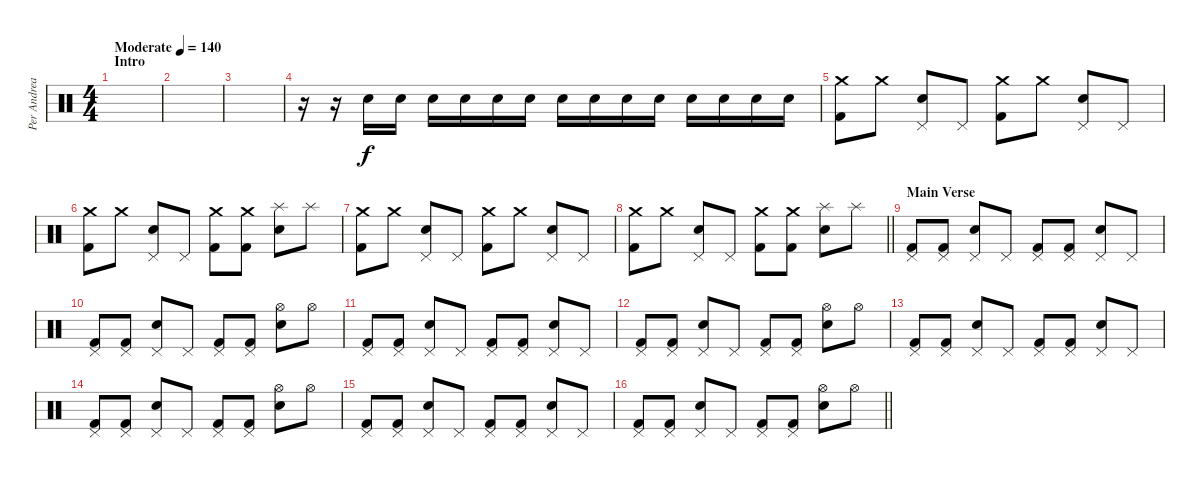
\track ("Per Andreasson" "Per Andrea") {instrument percussion}
\staff {score}
\articulation defaults
\ts (4 4)
\section ("" "Intro")
\tempo (140 "Moderate")
\clef neutral
\ks c
|
|
|
r.16 r.16 "Snare (hit) 2".16 "Snare (hit) 2".16 "Snare (hit) 2".16 "Snare (hit) 2".16 "Snare (hit) 2".16 "Snare (hit) 2".16 "Snare (hit) 2".16 "Snare (hit) 2".16 "Snare (hit) 2".16 "Snare (hit) 2".16 "Snare (hit) 2".16 "Snare (hit) 2".16 "Snare (hit) 2".16 "Snare (hit) 2".16 |
("Crash medium (hit)" "Kick (hit) 2").8 "Crash medium (hit)".8 ("Pedal Hi-Hat (hit)" "Snare (hit) 2").8 "Pedal Hi-Hat (hit)".8 ("Crash medium (hit)" "Kick (hit) 2").8 "Crash medium (hit)".8 ("Pedal Hi-Hat (hit)" "Snare (hit) 2").8 "Pedal Hi-Hat (hit)".8 |
("Crash medium (hit)" "Kick (hit) 2").8 "Crash medium (hit)".8 ("Pedal Hi-Hat (hit)" "Snare (hit) 2").8 "Pedal Hi-Hat (hit)".8 ("Crash medium (hit)" "Kick (hit) 2").8 ("Crash medium (hit)" "Kick (hit) 2").8 ("Splash (hit)" "Snare (hit) 2").8 "Splash (hit)".8 |
("Crash medium (hit)" "Kick (hit) 2").8 "Crash medium (hit)".8 ("Pedal Hi-Hat (hit)" "Snare (hit) 2").8 "Pedal Hi-Hat (hit)".8 ("Crash medium (hit)" "Kick (hit) 2").8 "Crash medium (hit)".8 ("Pedal Hi-Hat (hit)" "Snare (hit) 2").8 "Pedal Hi-Hat (hit)".8 |
\barLineRight lightlight
("Crash medium (hit)" "Kick (hit) 2").8 "Crash medium (hit)".8 ("Pedal Hi-Hat (hit)" "Snare (hit) 2").8 "Pedal Hi-Hat (hit)".8 ("Crash medium (hit)" "Kick (hit) 2").8 ("Crash medium (hit)" "Kick (hit) 2").8 ("Splash (hit)" "Snare (hit) 2").8 "Splash (hit)".8 |
\section ("" "Main Verse")
("Pedal Hi-Hat (hit)" "Kick (hit) 2").8 ("Pedal Hi-Hat (hit)" "Kick (hit) 2").8 ("Pedal Hi-Hat (hit)" "Snare (hit) 2").8 "Pedal Hi-Hat (hit)".8 ("Pedal Hi-Hat (hit)" "Kick (hit) 2").8 ("Pedal Hi-Hat (hit)" "Kick (hit) 2").8 ("Pedal Hi-Hat (hit)" "Snare (hit) 2").8 "Pedal Hi-Hat (hit)".8 |
("Pedal Hi-Hat (hit)" "Kick (hit) 2").8 ("Pedal Hi-Hat (hit)" "Kick (hit) 2").8 ("Pedal Hi-Hat (hit)" "Snare (hit) 2").8 "Pedal Hi-Hat (hit)".8 ("Pedal Hi-Hat (hit)" "Kick (hit) 2").8 ("Pedal Hi-Hat (hit)" "Kick (hit) 2").8 ("Hi-Hat (open)" "Snare (hit) 2").8 "Hi-Hat (open)".8 |
("Pedal Hi-Hat (hit)" "Kick (hit) 2").8 ("Pedal Hi-Hat (hit)" "Kick (hit) 2").8 ("Pedal Hi-Hat (hit)" "Snare (hit) 2").8 "Pedal Hi-Hat (hit)".8 ("Pedal Hi-Hat (hit)" "Kick (hit) 2").8 ("Pedal Hi-Hat (hit)" "Kick (hit) 2").8 ("Pedal Hi-Hat (hit)" "Snare (hit) 2").8 "Pedal Hi-Hat (hit)".8 |
("Pedal Hi-Hat (hit)" "Kick (hit) 2").8 ("Pedal Hi-Hat (hit)" "Kick (hit) 2").8 ("Pedal Hi-Hat (hit)" "Snare (hit) 2").8 "Pedal Hi-Hat (hit)".8 ("Pedal Hi-Hat (hit)" "Kick (hit) 2").8 ("Pedal Hi-Hat (hit)" "Kick (hit) 2").8 ("Hi-Hat (open)" "Snare (hit) 2").8 "Hi-Hat (open)".8 |
("Pedal Hi-Hat (hit)" "Kick (hit) 2").8 ("Pedal Hi-Hat (hit)" "Kick (hit) 2").8 ("Pedal Hi-Hat (hit)" "Snare (hit) 2").8 "Pedal Hi-Hat (hit)".8 ("Pedal Hi-Hat (hit)" "Kick (hit) 2").8 ("Pedal Hi-Hat (hit)" "Kick (hit) 2").8 ("Pedal Hi-Hat (hit)" "Snare (hit) 2").8 "Pedal Hi-Hat (hit)".8 |
("Pedal Hi-Hat (hit)" "Kick (hit) 2").8 ("Pedal Hi-Hat (hit)" "Kick (hit) 2").8 ("Pedal Hi-Hat (hit)" "Snare (hit) 2").8 "Pedal Hi-Hat (hit)".8 ("Pedal Hi-Hat (hit)" "Kick (hit) 2").8 ("Pedal Hi-Hat (hit)" "Kick (hit) 2").8 ("Hi-Hat (open)" "Snare (hit) 2").8 "Hi-Hat (open)".8 |
("Pedal Hi-Hat (hit)" "Kick (hit) 2").8 ("Pedal Hi-Hat (hit)" "Kick (hit) 2").8 ("Pedal Hi-Hat (hit)" "Snare (hit) 2").8 "Pedal Hi-Hat (hit)".8 ("Pedal Hi-Hat (hit)" "Kick (hit) 2").8 ("Pedal Hi-Hat (hit)" "Kick (hit) 2").8 ("Pedal Hi-Hat (hit)" "Snare (hit) 2").8 "Pedal Hi-Hat (hit)".8 |
\barLineRight lightlight
("Pedal Hi-Hat (hit)" "Kick (hit) 2").8 ("Pedal Hi-Hat (hit)" "Kick (hit) 2").8 ("Pedal Hi-Hat (hit)" "Snare (hit) 2").8 "Pedal Hi-Hat (hit)".8 ("Pedal Hi-Hat (hit)" "Kick (hit) 2").8 ("Pedal Hi-Hat (hit)" "Kick (hit) 2").8 ("Hi-Hat (open)" "Snare (hit) 2").8 "Hi-Hat (open)".8
